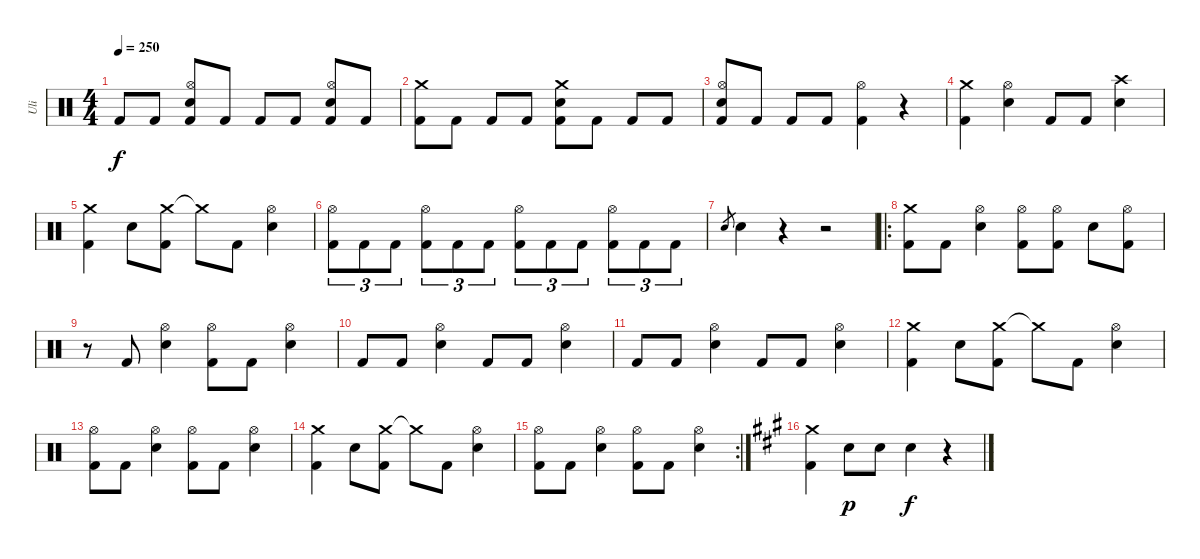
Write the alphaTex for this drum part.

\track ("Uli" "Uli") {instrument percussion}
\staff {score}
\articulation defaults
\ts (4 4)
\tempo 250
\clef neutral
\ks c "Kick (hit) 2".8{dy f} "Kick (hit) 2".8
("Hi-Hat (open)" "Snare (hit) 2" "Kick (hit) 2").8 "Kick (hit) 2".8 "Kick (hit) 2".8 "Kick (hit) 2".8 ("Hi-Hat (open)" "Snare (hit) 2" "Kick (hit) 2").8 "Kick (hit) 2".8 |
("Crash medium (hit)" "Kick (hit) 2").8 "Kick (hit) 2".8 "Kick (hit) 2".8 "Kick (hit) 2".8 ("Crash medium (hit)" "Snare (hit) 2" "Kick (hit) 2").8 "Kick (hit) 2".8 "Kick (hit) 2".8 "Kick (hit) 2".8 |
("Hi-Hat (open)" "Snare (hit) 2" "Kick (hit) 2").8 "Kick (hit) 2".8 "Kick (hit) 2".8 "Kick (hit) 2".8 ("Hi-Hat (open)" "Kick (hit) 2").4 r.4 |
("Crash medium (hit)" "Kick (hit) 2").4 ("Hi-Hat (open)" "Snare (hit) 2").4 "Kick (hit) 2".8 "Kick (hit) 2".8 ("Crash high (hit)" "Snare (hit) 2").4 |
("Crash medium (hit)" "Kick (hit) 2").4 "Snare (hit) 2".8 ("Crash medium (hit)" "Kick (hit) 2").8 "Crash medium (hit)"{t}.8 "Kick (hit) 2".8 ("Hi-Hat (open)" "Snare (hit) 2").4 |
("Hi-Hat (open)" "Kick (hit) 2").8{tu (3 2)} "Kick (hit) 2".8{tu (3 2)} "Kick (hit) 2".8{tu (3 2)} ("Hi-Hat (open)" "Kick (hit) 2").8{tu (3 2)} "Kick (hit) 2".8{tu (3 2)} "Kick (hit) 2".8{tu (3 2)} ("Hi-Hat (open)" "Kick (hit) 2").8{tu (3 2)} "Kick (hit) 2".8{tu (3 2)} "Kick (hit) 2".8{tu (3 2)} ("Hi-Hat (open)" "Kick (hit) 2").8{tu (3 2)} "Kick (hit) 2".8{tu (3 2)} "Kick (hit) 2".8{tu (3 2)} |
"Snare (hit) 2".8{gr} "Snare (hit) 2".4 r.4 r.2 |
\ro
("Crash medium (hit)" "Kick (hit) 2").8 "Kick (hit) 2".8 ("Hi-Hat (open)" "Snare (hit) 2").4 ("Hi-Hat (open)" "Kick (hit) 2").8 ("Hi-Hat (open)" "Kick (hit) 2").8 "Snare (hit) 2".8 ("Hi-Hat (open)" "Kick (hit) 2").8 |
r.8 "Kick (hit) 2".8 ("Hi-Hat (open)" "Snare (hit) 2").4 ("Hi-Hat (open)" "Kick (hit) 2").8 "Kick (hit) 2".8 ("Hi-Hat (open)" "Snare (hit) 2").4 |
"Kick (hit) 2".8 "Kick (hit) 2".8 ("Hi-Hat (open)" "Snare (hit) 2").4 "Kick (hit) 2".8 "Kick (hit) 2".8 ("Hi-Hat (open)" "Snare (hit) 2").4 |
"Kick (hit) 2".8 "Kick (hit) 2".8 ("Hi-Hat (open)" "Snare (hit) 2").4 "Kick (hit) 2".8 "Kick (hit) 2".8 ("Hi-Hat (open)" "Snare (hit) 2").4 |
("Crash medium (hit)" "Kick (hit) 2").4 "Snare (hit) 2".8 ("Crash medium (hit)" "Kick (hit) 2").8 "Crash medium (hit)"{t}.8 "Kick (hit) 2".8 ("Hi-Hat (open)" "Snare (hit) 2").4 |
("Hi-Hat (open)" "Kick (hit) 2").8 "Kick (hit) 2".8 ("Hi-Hat (open)" "Snare (hit) 2").4 ("Hi-Hat (open)" "Kick (hit) 2").8 "Kick (hit) 2".8 ("Hi-Hat (open)" "Snare (hit) 2").4 |
("Crash medium (hit)" "Kick (hit) 2").4 "Snare (hit) 2".8 ("Crash medium (hit)" "Kick (hit) 2").8 "Crash medium (hit)"{t}.8 "Kick (hit) 2".8 ("Hi-Hat (open)" "Snare (hit) 2").4 |
\rc 2
("Hi-Hat (open)" "Kick (hit) 2").8 "Kick (hit) 2".8 ("Hi-Hat (open)" "Snare (hit) 2").4 ("Hi-Hat (open)" "Kick (hit) 2").8 "Kick (hit) 2".8 ("Hi-Hat (open)" "Snare (hit) 2").4 |
\ks a
("Crash medium (hit)" "Kick (hit) 2").4 "Snare (hit) 2".8{dy p} "Snare (hit) 2".8 "Snare (hit) 2".4{dy f} r.4
